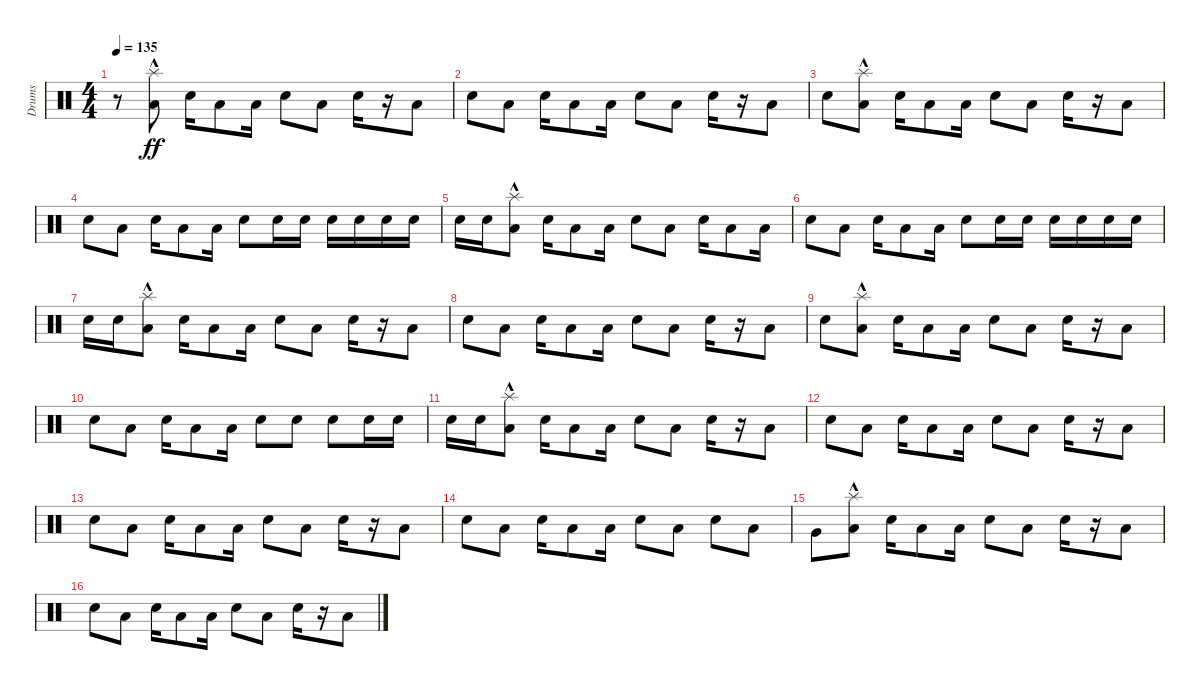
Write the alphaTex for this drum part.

\track ("Drums" "Drums") {instrument percussion}
\staff {score}
\articulation defaults
\ts (4 4)
\tempo 135
\clef neutral
\ks c
r.8{dy ff} ("Low Floor Tom (hit)" "Splash (hit)"{hac}).8 "Electric Snare (hit)".16 "Low Floor Tom (hit)".8 "Low Floor Tom (hit)".16 "Electric Snare (hit)".8 "Low Floor Tom (hit)".8 "Electric Snare (hit)".16 r.16 "Low Floor Tom (hit)".8 |
"Electric Snare (hit)".8 "Low Floor Tom (hit)".8 "Electric Snare (hit)".16 "Low Floor Tom (hit)".8 "Low Floor Tom (hit)".16 "Electric Snare (hit)".8 "Low Floor Tom (hit)".8 "Electric Snare (hit)".16 r.16 "Low Floor Tom (hit)".8 |
"Electric Snare (hit)".8 ("Low Floor Tom (hit)" "Splash (hit)"{hac}).8 "Electric Snare (hit)".16 "Low Floor Tom (hit)".8 "Low Floor Tom (hit)".16 "Electric Snare (hit)".8 "Low Floor Tom (hit)".8 "Electric Snare (hit)".16 r.16 "Low Floor Tom (hit)".8 |
"Electric Snare (hit)".8 "Low Floor Tom (hit)".8 "Electric Snare (hit)".16 "Low Floor Tom (hit)".8 "Low Floor Tom (hit)".16 "Electric Snare (hit)".8 "Electric Snare (hit)".16 "Electric Snare (hit)".16 "Electric Snare (hit)".16 "Electric Snare (hit)".16 "Electric Snare (hit)".16 "Electric Snare (hit)".16 |
"Electric Snare (hit)".16 "Electric Snare (hit)".16 ("Low Floor Tom (hit)" "Splash (hit)"{hac}).8 "Electric Snare (hit)".16 "Low Floor Tom (hit)".8 "Low Floor Tom (hit)".16 "Electric Snare (hit)".8 "Low Floor Tom (hit)".8 "Electric Snare (hit)".16 "Low Floor Tom (hit)".8 "Low Floor Tom (hit)".16 |
"Electric Snare (hit)".8 "Low Floor Tom (hit)".8 "Electric Snare (hit)".16 "Low Floor Tom (hit)".8 "Low Floor Tom (hit)".16 "Electric Snare (hit)".8 "Electric Snare (hit)".16 "Electric Snare (hit)".16 "Electric Snare (hit)".16 "Electric Snare (hit)".16 "Electric Snare (hit)".16 "Electric Snare (hit)".16 |
"Electric Snare (hit)".16 "Electric Snare (hit)".16 ("Low Floor Tom (hit)" "Splash (hit)"{hac}).8 "Electric Snare (hit)".16 "Low Floor Tom (hit)".8 "Low Floor Tom (hit)".16 "Electric Snare (hit)".8 "Low Floor Tom (hit)".8 "Electric Snare (hit)".16 r.16 "Low Floor Tom (hit)".8 |
"Electric Snare (hit)".8 "Low Floor Tom (hit)".8 "Electric Snare (hit)".16 "Low Floor Tom (hit)".8 "Low Floor Tom (hit)".16 "Electric Snare (hit)".8 "Low Floor Tom (hit)".8 "Electric Snare (hit)".16 r.16 "Low Floor Tom (hit)".8 |
"Electric Snare (hit)".8 ("Low Floor Tom (hit)" "Splash (hit)"{hac}).8 "Electric Snare (hit)".16 "Low Floor Tom (hit)".8 "Low Floor Tom (hit)".16 "Electric Snare (hit)".8 "Low Floor Tom (hit)".8 "Electric Snare (hit)".16 r.16 "Low Floor Tom (hit)".8 |
"Electric Snare (hit)".8 "Low Floor Tom (hit)".8 "Electric Snare (hit)".16 "Low Floor Tom (hit)".8 "Low Floor Tom (hit)".16 "Electric Snare (hit)".8 "Electric Snare (hit)".8 "Electric Snare (hit)".8 "Electric Snare (hit)".16 "Electric Snare (hit)".16 |
"Electric Snare (hit)".16 "Electric Snare (hit)".16 ("Low Floor Tom (hit)" "Splash (hit)"{hac}).8 "Electric Snare (hit)".16 "Low Floor Tom (hit)".8 "Low Floor Tom (hit)".16 "Electric Snare (hit)".8 "Low Floor Tom (hit)".8 "Electric Snare (hit)".16 r.16 "Low Floor Tom (hit)".8 |
"Electric Snare (hit)".8 "Low Floor Tom (hit)".8 "Electric Snare (hit)".16 "Low Floor Tom (hit)".8 "Low Floor Tom (hit)".16 "Electric Snare (hit)".8 "Low Floor Tom (hit)".8 "Electric Snare (hit)".16 r.16 "Low Floor Tom (hit)".8 |
"Electric Snare (hit)".8 "Low Floor Tom (hit)".8 "Electric Snare (hit)".16 "Low Floor Tom (hit)".8 "Low Floor Tom (hit)".16 "Electric Snare (hit)".8 "Low Floor Tom (hit)".8 "Electric Snare (hit)".16 r.16 "Low Floor Tom (hit)".8 |
"Electric Snare (hit)".8 "Low Floor Tom (hit)".8 "Electric Snare (hit)".16 "Low Floor Tom (hit)".8 "Low Floor Tom (hit)".16 "Electric Snare (hit)".8 "Low Floor Tom (hit)".8 "Electric Snare (hit)".8 "Low Tom (hit)".8 |
"Very Low Tom (hit)".8 ("Low Floor Tom (hit)" "Splash (hit)"{hac}).8 "Electric Snare (hit)".16 "Low Floor Tom (hit)".8 "Low Floor Tom (hit)".16 "Electric Snare (hit)".8 "Low Floor Tom (hit)".8 "Electric Snare (hit)".16 r.16 "Low Floor Tom (hit)".8 |
"Electric Snare (hit)".8 "Low Floor Tom (hit)".8 "Electric Snare (hit)".16 "Low Floor Tom (hit)".8 "Low Floor Tom (hit)".16 "Electric Snare (hit)".8 "Low Floor Tom (hit)".8 "Electric Snare (hit)".16 r.16 "Low Floor Tom (hit)".8
